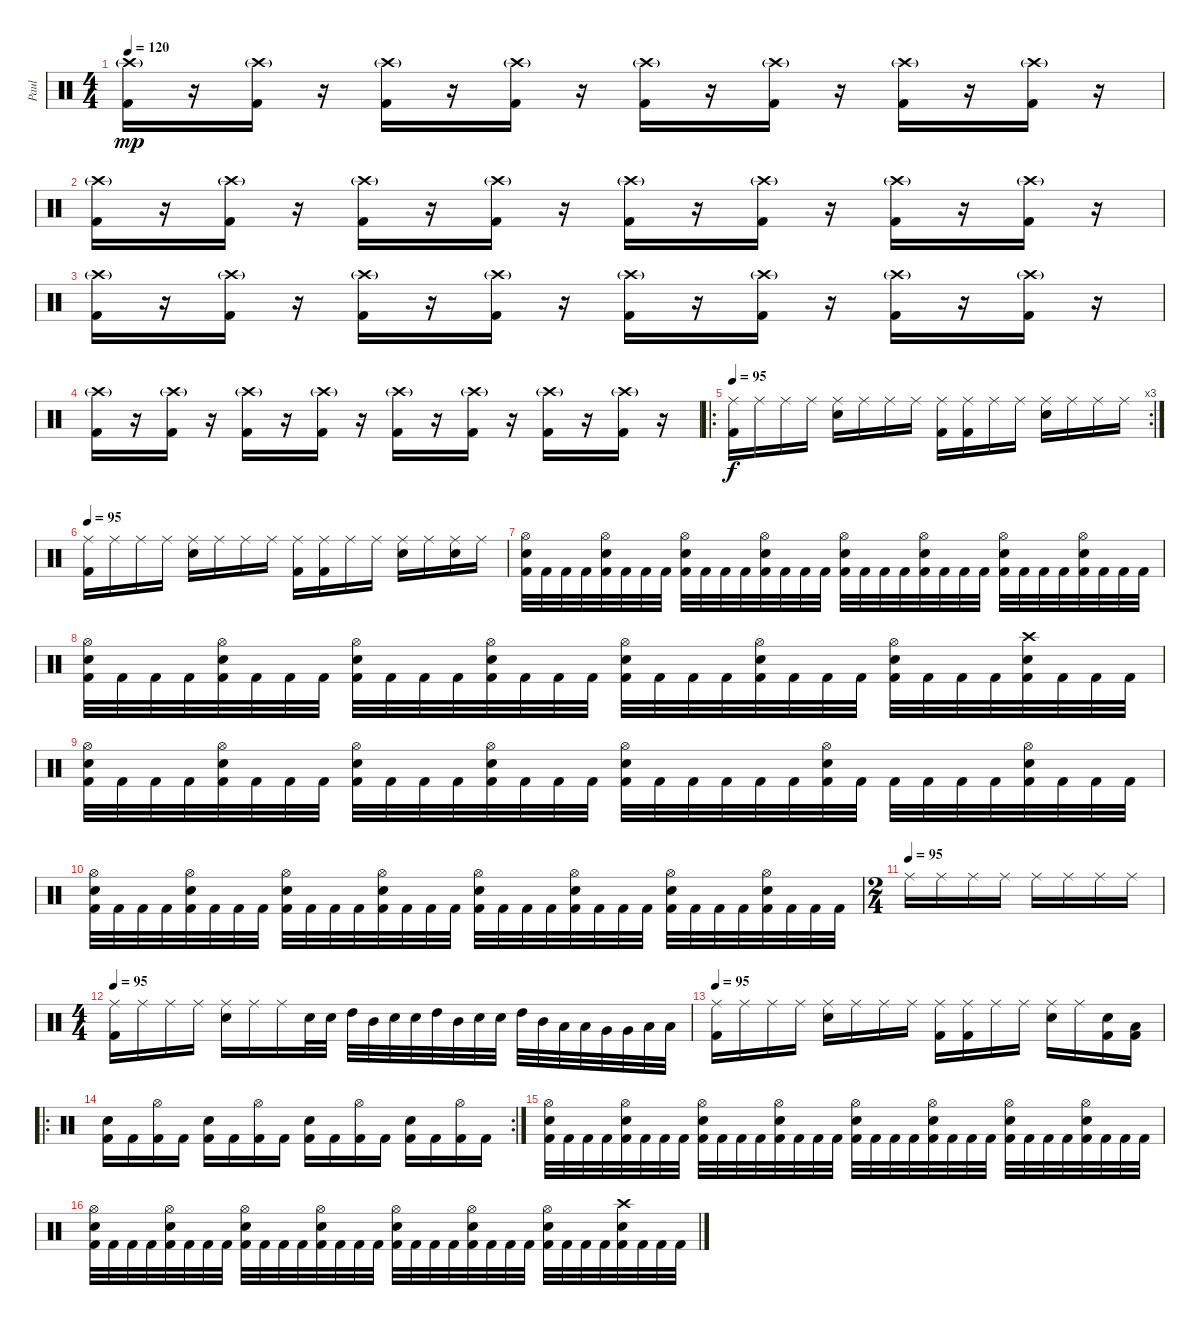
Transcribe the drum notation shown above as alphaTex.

\track ("Paul" "Paul") {instrument percussion}
\staff {score}
\articulation defaults
\ts (4 4)
\tempo 120
\clef neutral
\ks c
("Crash high (hit)"{g} "Kick (hit) 2").16{dy mp volume 0} r.16{volume 15} ("Crash high (hit)"{g} "Kick (hit) 2").16{volume 0} r.16{volume 15} ("Crash high (hit)"{g} "Kick (hit) 2").16{volume 0} r.16{volume 15} ("Crash high (hit)"{g} "Kick (hit) 2").16{volume 0} r.16{volume 15} ("Crash high (hit)"{g} "Kick (hit) 2").16{volume 0} r.16{volume 15} ("Crash high (hit)"{g} "Kick (hit) 2").16{volume 0} r.16{volume 15} ("Crash high (hit)"{g} "Kick (hit) 2").16{volume 0} r.16{volume 15} ("Crash high (hit)"{g} "Kick (hit) 2").16{volume 0} r.16{volume 15} |
("Crash high (hit)"{g} "Kick (hit) 2").16{volume 0} r.16{volume 15} ("Crash high (hit)"{g} "Kick (hit) 2").16{volume 0} r.16{volume 15} ("Crash high (hit)"{g} "Kick (hit) 2").16{volume 0} r.16{volume 15} ("Crash high (hit)"{g} "Kick (hit) 2").16{volume 0} r.16{volume 15} ("Crash high (hit)"{g} "Kick (hit) 2").16{volume 0} r.16{volume 15} ("Crash high (hit)"{g} "Kick (hit) 2").16{volume 0} r.16{volume 15} ("Crash high (hit)"{g} "Kick (hit) 2").16{volume 0} r.16{volume 15} ("Crash high (hit)"{g} "Kick (hit) 2").16{volume 0} r.16{volume 15} |
("Crash high (hit)"{g} "Kick (hit) 2").16{volume 0} r.16{volume 15} ("Crash high (hit)"{g} "Kick (hit) 2").16{volume 0} r.16{volume 15} ("Crash high (hit)"{g} "Kick (hit) 2").16{volume 0} r.16{volume 15} ("Crash high (hit)"{g} "Kick (hit) 2").16{volume 0} r.16{volume 15} ("Crash high (hit)"{g} "Kick (hit) 2").16{volume 0} r.16{volume 15} ("Crash high (hit)"{g} "Kick (hit) 2").16{volume 0} r.16{volume 15} ("Crash high (hit)"{g} "Kick (hit) 2").16{volume 0} r.16{volume 15} ("Crash high (hit)"{g} "Kick (hit) 2").16{volume 0} r.16{volume 15} |
("Crash high (hit)"{g} "Kick (hit) 2").16{volume 0} r.16{volume 15} ("Crash high (hit)"{g} "Kick (hit) 2").16{volume 0} r.16{volume 15} ("Crash high (hit)"{g} "Kick (hit) 2").16{volume 0} r.16{volume 15} ("Crash high (hit)"{g} "Kick (hit) 2").16{volume 0} r.16{volume 15} ("Crash high (hit)"{g} "Kick (hit) 2").16{volume 0} r.16{volume 15} ("Crash high (hit)"{g} "Kick (hit) 2").16{volume 0} r.16{volume 15} ("Crash high (hit)"{g} "Kick (hit) 2").16{volume 0} r.16{volume 15} ("Crash high (hit)"{g} "Kick (hit) 2").16{volume 15} r.16{volume 15} |
\ro
\rc 3
\tempo 95
("Ride (middle)" "Kick (hit) 2").16{dy f volume 15} "Ride (middle)".16 "Ride (middle)".16 "Ride (middle)".16 ("Ride (middle)" "Electric Snare (hit)").16 "Ride (middle)".16 "Ride (middle)".16 "Ride (middle)".16 ("Ride (middle)" "Kick (hit) 2").16 ("Ride (middle)" "Kick (hit) 2").16 "Ride (middle)".16 "Ride (middle)".16 ("Ride (middle)" "Electric Snare (hit)").16 "Ride (middle)".16 "Ride (middle)".16 "Ride (middle)".16 |
\tempo 95
("Ride (middle)" "Kick (hit) 2").16 "Ride (middle)".16 "Ride (middle)".16 "Ride (middle)".16 ("Ride (middle)" "Electric Snare (hit)").16 "Ride (middle)".16 "Ride (middle)".16 "Ride (middle)".16 ("Ride (middle)" "Kick (hit) 2").16 ("Ride (middle)" "Kick (hit) 2").16 "Ride (middle)".16 "Ride (middle)".16 ("Ride (middle)" "Electric Snare (hit)").16 "Ride (middle)".16 ("Ride (middle)" "Electric Snare (hit)").16 "Ride (middle)".16 |
("Hi-Hat (open)" "Electric Snare (hit)" "Kick (hit) 2").32 "Kick (hit) 2".32 "Kick (hit) 2".32 "Kick (hit) 2".32 ("Hi-Hat (open)" "Electric Snare (hit)" "Kick (hit) 2").32 "Kick (hit) 2".32 "Kick (hit) 2".32 "Kick (hit) 2".32 ("Hi-Hat (open)" "Electric Snare (hit)" "Kick (hit) 2").32 "Kick (hit) 2".32 "Kick (hit) 2".32 "Kick (hit) 2".32 ("Hi-Hat (open)" "Electric Snare (hit)" "Kick (hit) 2").32 "Kick (hit) 2".32 "Kick (hit) 2".32 "Kick (hit) 2".32 ("Hi-Hat (open)" "Electric Snare (hit)" "Kick (hit) 2").32 "Kick (hit) 2".32 "Kick (hit) 2".32 "Kick (hit) 2".32 ("Hi-Hat (open)" "Electric Snare (hit)" "Kick (hit) 2").32 "Kick (hit) 2".32 "Kick (hit) 2".32 "Kick (hit) 2".32 ("Hi-Hat (open)" "Electric Snare (hit)" "Kick (hit) 2").32 "Kick (hit) 2".32 "Kick (hit) 2".32 "Kick (hit) 2".32 ("Hi-Hat (open)" "Electric Snare (hit)" "Kick (hit) 2").32 "Kick (hit) 2".32 "Kick (hit) 2".32 "Kick (hit) 2".32 |
("Hi-Hat (open)" "Electric Snare (hit)" "Kick (hit) 2").32 "Kick (hit) 2".32 "Kick (hit) 2".32 "Kick (hit) 2".32 ("Hi-Hat (open)" "Electric Snare (hit)" "Kick (hit) 2").32 "Kick (hit) 2".32 "Kick (hit) 2".32 "Kick (hit) 2".32 ("Hi-Hat (open)" "Electric Snare (hit)" "Kick (hit) 2").32 "Kick (hit) 2".32 "Kick (hit) 2".32 "Kick (hit) 2".32 ("Hi-Hat (open)" "Electric Snare (hit)" "Kick (hit) 2").32 "Kick (hit) 2".32 "Kick (hit) 2".32 "Kick (hit) 2".32 ("Hi-Hat (open)" "Electric Snare (hit)" "Kick (hit) 2").32 "Kick (hit) 2".32 "Kick (hit) 2".32 "Kick (hit) 2".32 ("Hi-Hat (open)" "Electric Snare (hit)" "Kick (hit) 2").32 "Kick (hit) 2".32 "Kick (hit) 2".32 "Kick (hit) 2".32 ("Hi-Hat (open)" "Electric Snare (hit)" "Kick (hit) 2").32 "Kick (hit) 2".32 "Kick (hit) 2".32 "Kick (hit) 2".32 ("Crash high (hit)" "Electric Snare (hit)" "Kick (hit) 2").32 "Kick (hit) 2".32 "Kick (hit) 2".32 "Kick (hit) 2".32 |
("Hi-Hat (open)" "Electric Snare (hit)" "Kick (hit) 2").32 "Kick (hit) 2".32 "Kick (hit) 2".32 "Kick (hit) 2".32 ("Hi-Hat (open)" "Electric Snare (hit)" "Kick (hit) 2").32 "Kick (hit) 2".32 "Kick (hit) 2".32 "Kick (hit) 2".32 ("Hi-Hat (open)" "Electric Snare (hit)" "Kick (hit) 2").32 "Kick (hit) 2".32 "Kick (hit) 2".32 "Kick (hit) 2".32 ("Hi-Hat (open)" "Electric Snare (hit)" "Kick (hit) 2").32 "Kick (hit) 2".32 "Kick (hit) 2".32 "Kick (hit) 2".32 ("Hi-Hat (open)" "Electric Snare (hit)" "Kick (hit) 2").32 "Kick (hit) 2".32 "Kick (hit) 2".32 "Kick (hit) 2".32 "Kick (hit) 2".32 "Kick (hit) 2".32 ("Hi-Hat (open)" "Electric Snare (hit)" "Kick (hit) 2").32 "Kick (hit) 2".32 "Kick (hit) 2".32 "Kick (hit) 2".32 "Kick (hit) 2".32 "Kick (hit) 2".32 ("Hi-Hat (open)" "Electric Snare (hit)" "Kick (hit) 2").32 "Kick (hit) 2".32 "Kick (hit) 2".32 "Kick (hit) 2".32 |
("Hi-Hat (open)" "Electric Snare (hit)" "Kick (hit) 2").32 "Kick (hit) 2".32 "Kick (hit) 2".32 "Kick (hit) 2".32 ("Hi-Hat (open)" "Electric Snare (hit)" "Kick (hit) 2").32 "Kick (hit) 2".32 "Kick (hit) 2".32 "Kick (hit) 2".32 ("Hi-Hat (open)" "Electric Snare (hit)" "Kick (hit) 2").32 "Kick (hit) 2".32 "Kick (hit) 2".32 "Kick (hit) 2".32 ("Hi-Hat (open)" "Electric Snare (hit)" "Kick (hit) 2").32 "Kick (hit) 2".32 "Kick (hit) 2".32 "Kick (hit) 2".32 ("Hi-Hat (open)" "Electric Snare (hit)" "Kick (hit) 2").32 "Kick (hit) 2".32 "Kick (hit) 2".32 "Kick (hit) 2".32 ("Hi-Hat (open)" "Electric Snare (hit)" "Kick (hit) 2").32 "Kick (hit) 2".32 "Kick (hit) 2".32 "Kick (hit) 2".32 ("Hi-Hat (open)" "Electric Snare (hit)" "Kick (hit) 2").32 "Kick (hit) 2".32 "Kick (hit) 2".32 "Kick (hit) 2".32 ("Hi-Hat (open)" "Electric Snare (hit)" "Kick (hit) 2").32 "Kick (hit) 2".32 "Kick (hit) 2".32 "Kick (hit) 2".32 |
\ts (2 4)
\tempo (95)
"Ride (middle)".16 "Ride (middle)".16 "Ride (middle)".16 "Ride (middle)".16 "Ride (middle)".16 "Ride (middle)".16 "Ride (middle)".16 "Ride (middle)".16 |
\ts (4 4)
\tempo 95
("Ride (middle)" "Kick (hit) 2").16{volume 15} "Ride (middle)".16 "Ride (middle)".16 "Ride (middle)".16 ("Ride (middle)" "Electric Snare (hit)").16 "Ride (middle)".16 "Ride (middle)".16 "Electric Snare (hit)".32 "Electric Snare (hit)".32 "High Tom (hit)".32 "Mid Tom (hit)".32 "Electric Snare (hit)".32 "Electric Snare (hit)".32 "High Tom (hit)".32 "Mid Tom (hit)".32 "Electric Snare (hit)".32 "Electric Snare (hit)".32 "High Tom (hit)".32 "Mid Tom (hit)".32 "Low Tom (hit)".32 "Low Tom (hit)".32 "Very Low Tom (hit)".32 "Very Low Tom (hit)".32 "Low Floor Tom (hit)".32 "Low Floor Tom (hit)".32 |
\tempo 95
("Ride (middle)" "Kick (hit) 2").16{volume 15} "Ride (middle)".16 "Ride (middle)".16 "Ride (middle)".16 ("Ride (middle)" "Electric Snare (hit)").16 "Ride (middle)".16 "Ride (middle)".16 "Ride (middle)".16 ("Ride (middle)" "Kick (hit) 2").16 ("Ride (middle)" "Kick (hit) 2").16 "Ride (middle)".16 "Ride (middle)".16 ("Ride (middle)" "Electric Snare (hit)").16 "Ride (middle)".16 ("Snare (hit)" "Kick (hit) 2").16 ("Low Floor Tom (hit)" "Kick (hit) 2").16 |
\ro
\rc 2
("Electric Snare (hit)" "Kick (hit) 2").16 "Kick (hit) 2".16 ("Hi-Hat (open)" "Kick (hit) 2").16 "Kick (hit) 2".16 ("Electric Snare (hit)" "Kick (hit) 2").16 "Kick (hit) 2".16 ("Hi-Hat (open)" "Kick (hit) 2").16 "Kick (hit) 2".16 ("Electric Snare (hit)" "Kick (hit) 2").16 "Kick (hit) 2".16 ("Hi-Hat (open)" "Kick (hit) 2").16 "Kick (hit) 2".16 ("Electric Snare (hit)" "Kick (hit) 2").16 "Kick (hit) 2".16 ("Hi-Hat (open)" "Kick (hit) 2").16 "Kick (hit) 2".16 |
("Hi-Hat (open)" "Electric Snare (hit)" "Kick (hit) 2").32 "Kick (hit) 2".32 "Kick (hit) 2".32 "Kick (hit) 2".32 ("Hi-Hat (open)" "Electric Snare (hit)" "Kick (hit) 2").32 "Kick (hit) 2".32 "Kick (hit) 2".32 "Kick (hit) 2".32 ("Hi-Hat (open)" "Electric Snare (hit)" "Kick (hit) 2").32 "Kick (hit) 2".32 "Kick (hit) 2".32 "Kick (hit) 2".32 ("Hi-Hat (open)" "Electric Snare (hit)" "Kick (hit) 2").32 "Kick (hit) 2".32 "Kick (hit) 2".32 "Kick (hit) 2".32 ("Hi-Hat (open)" "Electric Snare (hit)" "Kick (hit) 2").32 "Kick (hit) 2".32 "Kick (hit) 2".32 "Kick (hit) 2".32 ("Hi-Hat (open)" "Electric Snare (hit)" "Kick (hit) 2").32 "Kick (hit) 2".32 "Kick (hit) 2".32 "Kick (hit) 2".32 ("Hi-Hat (open)" "Electric Snare (hit)" "Kick (hit) 2").32 "Kick (hit) 2".32 "Kick (hit) 2".32 "Kick (hit) 2".32 ("Hi-Hat (open)" "Electric Snare (hit)" "Kick (hit) 2").32 "Kick (hit) 2".32 "Kick (hit) 2".32 "Kick (hit) 2".32 |
("Hi-Hat (open)" "Electric Snare (hit)" "Kick (hit) 2").32 "Kick (hit) 2".32 "Kick (hit) 2".32 "Kick (hit) 2".32 ("Hi-Hat (open)" "Electric Snare (hit)" "Kick (hit) 2").32 "Kick (hit) 2".32 "Kick (hit) 2".32 "Kick (hit) 2".32 ("Hi-Hat (open)" "Electric Snare (hit)" "Kick (hit) 2").32 "Kick (hit) 2".32 "Kick (hit) 2".32 "Kick (hit) 2".32 ("Hi-Hat (open)" "Electric Snare (hit)" "Kick (hit) 2").32 "Kick (hit) 2".32 "Kick (hit) 2".32 "Kick (hit) 2".32 ("Hi-Hat (open)" "Electric Snare (hit)" "Kick (hit) 2").32 "Kick (hit) 2".32 "Kick (hit) 2".32 "Kick (hit) 2".32 ("Hi-Hat (open)" "Electric Snare (hit)" "Kick (hit) 2").32 "Kick (hit) 2".32 "Kick (hit) 2".32 "Kick (hit) 2".32 ("Hi-Hat (open)" "Electric Snare (hit)" "Kick (hit) 2").32 "Kick (hit) 2".32 "Kick (hit) 2".32 "Kick (hit) 2".32 ("Crash high (hit)" "Electric Snare (hit)" "Kick (hit) 2").32 "Kick (hit) 2".32 "Kick (hit) 2".32 "Kick (hit) 2".32
